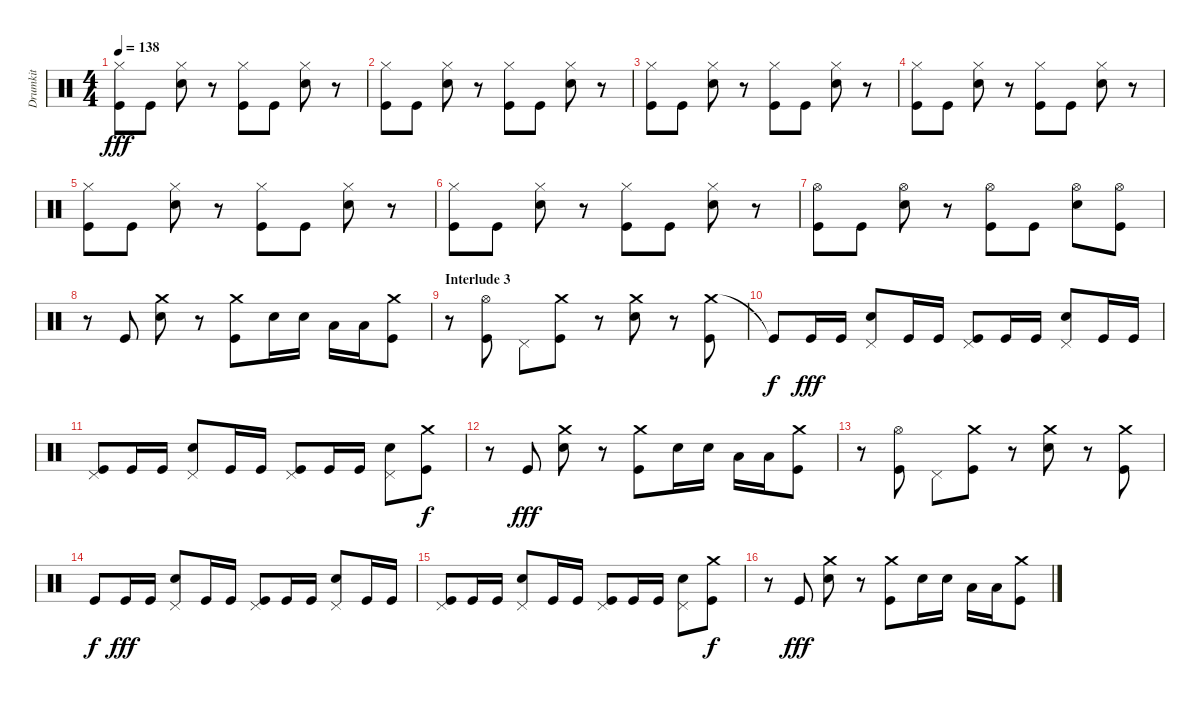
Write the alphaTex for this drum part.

\track ("Drumkit" "Drumkit") {instrument percussion}
\staff {score}
\articulation defaults
\ts (4 4)
\tempo 138
\clef neutral
\ks c
("Hi-Hat (closed)" "Kick (hit)").8{dy fff} "Kick (hit)".8 ("Hi-Hat (closed)" "Snare (hit) 2").8 r.8 ("Hi-Hat (closed)" "Kick (hit)").8 "Kick (hit)".8 ("Hi-Hat (closed)" "Snare (hit) 2").8 r.8 |
("Hi-Hat (closed)" "Kick (hit)").8 "Kick (hit)".8 ("Hi-Hat (closed)" "Snare (hit) 2").8 r.8 ("Hi-Hat (closed)" "Kick (hit)").8 "Kick (hit)".8 ("Hi-Hat (closed)" "Snare (hit) 2").8 r.8 |
("Hi-Hat (closed)" "Kick (hit)").8 "Kick (hit)".8 ("Hi-Hat (closed)" "Snare (hit) 2").8 r.8 ("Hi-Hat (closed)" "Kick (hit)").8 "Kick (hit)".8 ("Hi-Hat (closed)" "Snare (hit) 2").8 r.8 |
("Hi-Hat (closed)" "Kick (hit)").8 "Kick (hit)".8 ("Hi-Hat (closed)" "Snare (hit) 2").8 r.8 ("Hi-Hat (closed)" "Kick (hit)").8 "Kick (hit)".8 ("Hi-Hat (closed)" "Snare (hit) 2").8 r.8 |
("Hi-Hat (closed)" "Kick (hit)").8 "Kick (hit)".8 ("Hi-Hat (closed)" "Snare (hit) 2").8 r.8 ("Hi-Hat (closed)" "Kick (hit)").8 "Kick (hit)".8 ("Hi-Hat (closed)" "Snare (hit) 2").8 r.8 |
("Hi-Hat (closed)" "Kick (hit)").8 "Kick (hit)".8 ("Hi-Hat (closed)" "Snare (hit) 2").8 r.8 ("Hi-Hat (closed)" "Kick (hit)").8 "Kick (hit)".8 ("Hi-Hat (closed)" "Snare (hit) 2").8 r.8 |
("Hi-Hat (open)" "Kick (hit)").8 "Kick (hit)".8 ("Hi-Hat (open)" "Snare (hit) 2").8 r.8 ("Hi-Hat (open)" "Kick (hit)").8 "Kick (hit)".8 ("Hi-Hat (open)" "Snare (hit) 2").8 ("Hi-Hat (open)" "Kick (hit)").8 |
r.8 "Kick (hit)".8 ("Crash medium (hit)" "Snare (hit) 2").8 r.8 ("Crash medium (hit)" "Kick (hit)").8 "Snare (hit) 2".16 "Snare (hit) 2".16 "Low Tom (hit)".16 "Low Floor Tom (hit)".16 ("Crash medium (hit)" "Kick (hit)").8 |
\section ("" "Interlude 3")
r.8 ("Hi-Hat (open)" "Kick (hit)").8 "Pedal Hi-Hat (hit)".8 ("Crash medium (hit)" "Kick (hit)").8 r.8 ("Crash medium (hit)" "Snare (hit) 2").8 r.8 ("Crash medium (hit)" "Kick (hit)").8 |
"Kick (hit)"{t}.8{dy f} "Kick (hit)".16{dy fff} "Kick (hit)".16 ("Pedal Hi-Hat (hit)" "Snare (hit) 2").8 "Kick (hit)".16 "Kick (hit)".16 ("Pedal Hi-Hat (hit)" "Kick (hit)").8 "Kick (hit)".16 "Kick (hit)".16 ("Pedal Hi-Hat (hit)" "Snare (hit) 2").8 "Kick (hit)".16 "Kick (hit)".16 |
("Pedal Hi-Hat (hit)" "Kick (hit)").8 "Kick (hit)".16 "Kick (hit)".16 ("Pedal Hi-Hat (hit)" "Snare (hit) 2").8 "Kick (hit)".16 "Kick (hit)".16 ("Pedal Hi-Hat (hit)" "Kick (hit)").8 "Kick (hit)".16 "Kick (hit)".16 ("Pedal Hi-Hat (hit)" "Snare (hit) 2").8 ("Crash medium (hit)" "Kick (hit)").8{dy f} |
r.8 "Kick (hit)".8{dy fff} ("Crash medium (hit)" "Snare (hit) 2").8 r.8 ("Crash medium (hit)" "Kick (hit)").8 "Snare (hit) 2".16 "Snare (hit) 2".16 "Low Tom (hit)".16 "Low Floor Tom (hit)".16 ("Crash medium (hit)" "Kick (hit)").8 |
r.8 ("Hi-Hat (open)" "Kick (hit)").8 "Pedal Hi-Hat (hit)".8 ("Crash medium (hit)" "Kick (hit)").8 r.8 ("Crash medium (hit)" "Snare (hit) 2").8 r.8 ("Crash medium (hit)" "Kick (hit)").8 |
"Kick (hit)".8{dy f} "Kick (hit)".16{dy fff} "Kick (hit)".16 ("Pedal Hi-Hat (hit)" "Snare (hit) 2").8 "Kick (hit)".16 "Kick (hit)".16 ("Pedal Hi-Hat (hit)" "Kick (hit)").8 "Kick (hit)".16 "Kick (hit)".16 ("Pedal Hi-Hat (hit)" "Snare (hit) 2").8 "Kick (hit)".16 "Kick (hit)".16 |
("Pedal Hi-Hat (hit)" "Kick (hit)").8 "Kick (hit)".16 "Kick (hit)".16 ("Pedal Hi-Hat (hit)" "Snare (hit) 2").8 "Kick (hit)".16 "Kick (hit)".16 ("Pedal Hi-Hat (hit)" "Kick (hit)").8 "Kick (hit)".16 "Kick (hit)".16 ("Pedal Hi-Hat (hit)" "Snare (hit) 2").8 ("Crash medium (hit)" "Kick (hit)").8{dy f} |
r.8 "Kick (hit)".8{dy fff} ("Crash medium (hit)" "Snare (hit) 2").8 r.8 ("Crash medium (hit)" "Kick (hit)").8 "Snare (hit) 2".16 "Snare (hit) 2".16 "Low Tom (hit)".16 "Low Floor Tom (hit)".16 ("Crash medium (hit)" "Kick (hit)").8
